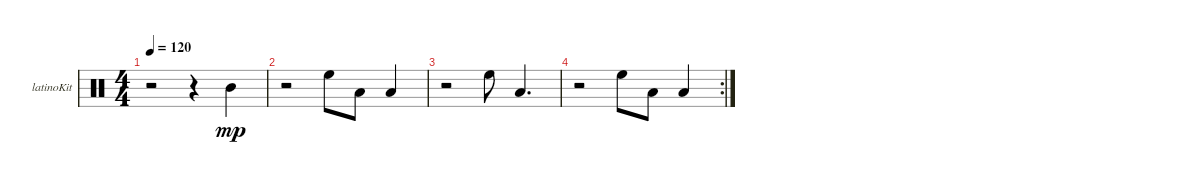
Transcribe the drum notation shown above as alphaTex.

\defaultSystemsLayout 4
\bracketExtendMode groupsimilarinstruments
\firstSystemTrackNameOrientation horizontal
\otherSystemsTrackNameOrientation horizontal
\track ("Kit-Latino" "latinoKit") {instrument percussion}
\staff {score}
\articulation defaults
\ts (4 4)
\tempo 120
\clef neutral
\ks c
r.2{dy mp} r.4 "Mid Tom (hit)".4 |
r.2 "High Floor Tom (hit)".8 "Low Tom (hit)".8 "Low Tom (hit)".4 |
r.2 "High Floor Tom (hit)".8 "Low Tom (hit)".4{d} |
\rc 2
r.2 "High Floor Tom (hit)".8 "Low Tom (hit)".8 "Low Tom (hit)".4
